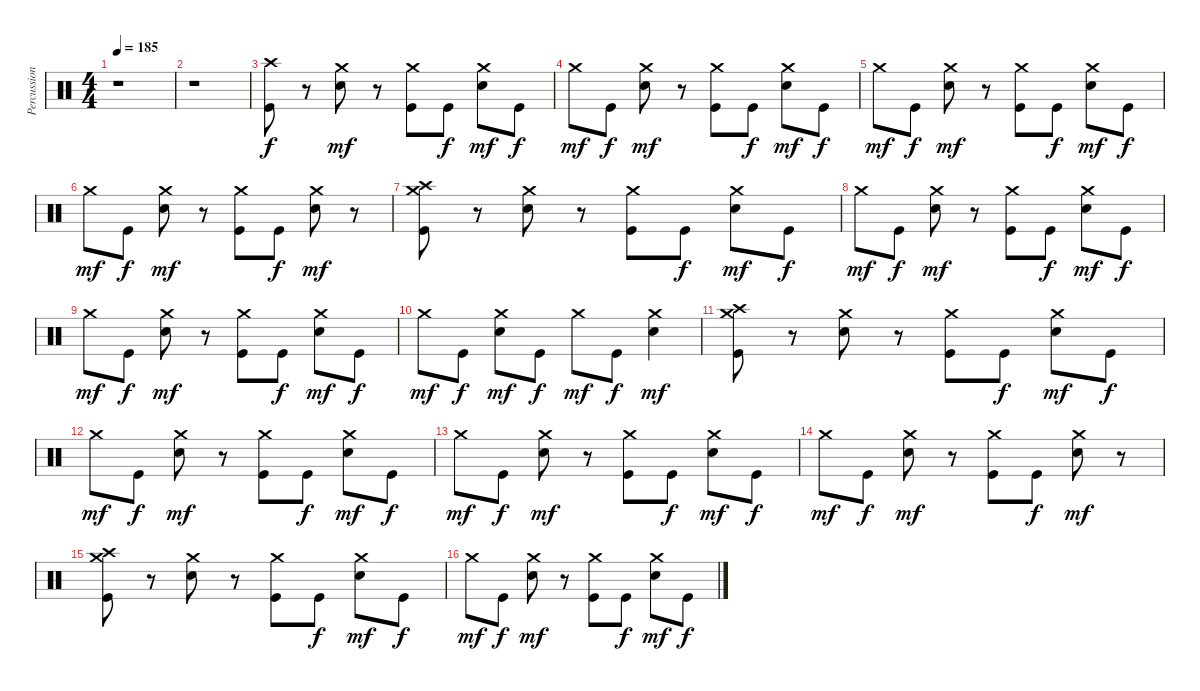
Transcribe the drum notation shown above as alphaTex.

\track ("Percussions" "Percussion") {instrument percussion}
\staff {score}
\articulation defaults
\ts (4 4)
\tempo 185
\clef neutral
\ks c
r.1{dy mf} |
r.1 |
("Kick (hit)" "Crash high (hit)").8{dy f} r.8 ("Electric Snare (hit)" "Crash medium (hit)").8{dy mf} r.8 ("Kick (hit)" "Crash medium (hit)").8 "Kick (hit)".8{dy f} ("Electric Snare (hit)" "Crash medium (hit)").8{dy mf} "Kick (hit)".8{dy f} |
"Crash medium (hit)".8{dy mf} "Kick (hit)".8{dy f} ("Electric Snare (hit)" "Crash medium (hit)").8{dy mf} r.8 ("Kick (hit)" "Crash medium (hit)").8 "Kick (hit)".8{dy f} ("Electric Snare (hit)" "Crash medium (hit)").8{dy mf} "Kick (hit)".8{dy f} |
"Crash medium (hit)".8{dy mf} "Kick (hit)".8{dy f} ("Electric Snare (hit)" "Crash medium (hit)").8{dy mf} r.8 ("Kick (hit)" "Crash medium (hit)").8 "Kick (hit)".8{dy f} ("Electric Snare (hit)" "Crash medium (hit)").8{dy mf} "Kick (hit)".8{dy f} |
"Crash medium (hit)".8{dy mf} "Kick (hit)".8{dy f} ("Electric Snare (hit)" "Crash medium (hit)").8{dy mf} r.8 ("Kick (hit)" "Crash medium (hit)").8 "Kick (hit)".8{dy f} ("Electric Snare (hit)" "Crash medium (hit)").8{dy mf} r.8 |
("Kick (hit)" "Crash medium (hit)" "Crash high (hit)").8 r.8 ("Electric Snare (hit)" "Crash medium (hit)").8 r.8 ("Kick (hit)" "Crash medium (hit)").8 "Kick (hit)".8{dy f} ("Electric Snare (hit)" "Crash medium (hit)").8{dy mf} "Kick (hit)".8{dy f} |
"Crash medium (hit)".8{dy mf} "Kick (hit)".8{dy f} ("Electric Snare (hit)" "Crash medium (hit)").8{dy mf} r.8 ("Kick (hit)" "Crash medium (hit)").8 "Kick (hit)".8{dy f} ("Electric Snare (hit)" "Crash medium (hit)").8{dy mf} "Kick (hit)".8{dy f} |
"Crash medium (hit)".8{dy mf} "Kick (hit)".8{dy f} ("Electric Snare (hit)" "Crash medium (hit)").8{dy mf} r.8 ("Kick (hit)" "Crash medium (hit)").8 "Kick (hit)".8{dy f} ("Electric Snare (hit)" "Crash medium (hit)").8{dy mf} "Kick (hit)".8{dy f} |
"Crash medium (hit)".8{dy mf} "Kick (hit)".8{dy f} ("Electric Snare (hit)" "Crash medium (hit)").8{dy mf} "Kick (hit)".8{dy f} "Crash medium (hit)".8{dy mf} "Kick (hit)".8{dy f} ("Electric Snare (hit)" "Crash medium (hit)").4{dy mf} |
("Kick (hit)" "Crash medium (hit)" "Crash high (hit)").8 r.8 ("Electric Snare (hit)" "Crash medium (hit)").8 r.8 ("Kick (hit)" "Crash medium (hit)").8 "Kick (hit)".8{dy f} ("Electric Snare (hit)" "Crash medium (hit)").8{dy mf} "Kick (hit)".8{dy f} |
"Crash medium (hit)".8{dy mf} "Kick (hit)".8{dy f} ("Electric Snare (hit)" "Crash medium (hit)").8{dy mf} r.8 ("Kick (hit)" "Crash medium (hit)").8 "Kick (hit)".8{dy f} ("Electric Snare (hit)" "Crash medium (hit)").8{dy mf} "Kick (hit)".8{dy f} |
"Crash medium (hit)".8{dy mf} "Kick (hit)".8{dy f} ("Electric Snare (hit)" "Crash medium (hit)").8{dy mf} r.8 ("Kick (hit)" "Crash medium (hit)").8 "Kick (hit)".8{dy f} ("Electric Snare (hit)" "Crash medium (hit)").8{dy mf} "Kick (hit)".8{dy f} |
"Crash medium (hit)".8{dy mf} "Kick (hit)".8{dy f} ("Electric Snare (hit)" "Crash medium (hit)").8{dy mf} r.8 ("Kick (hit)" "Crash medium (hit)").8 "Kick (hit)".8{dy f} ("Electric Snare (hit)" "Crash medium (hit)").8{dy mf} r.8 |
("Kick (hit)" "Crash medium (hit)" "Crash high (hit)").8 r.8 ("Electric Snare (hit)" "Crash medium (hit)").8 r.8 ("Kick (hit)" "Crash medium (hit)").8 "Kick (hit)".8{dy f} ("Electric Snare (hit)" "Crash medium (hit)").8{dy mf} "Kick (hit)".8{dy f} |
"Crash medium (hit)".8{dy mf} "Kick (hit)".8{dy f} ("Electric Snare (hit)" "Crash medium (hit)").8{dy mf} r.8 ("Kick (hit)" "Crash medium (hit)").8 "Kick (hit)".8{dy f} ("Electric Snare (hit)" "Crash medium (hit)").8{dy mf} "Kick (hit)".8{dy f}
